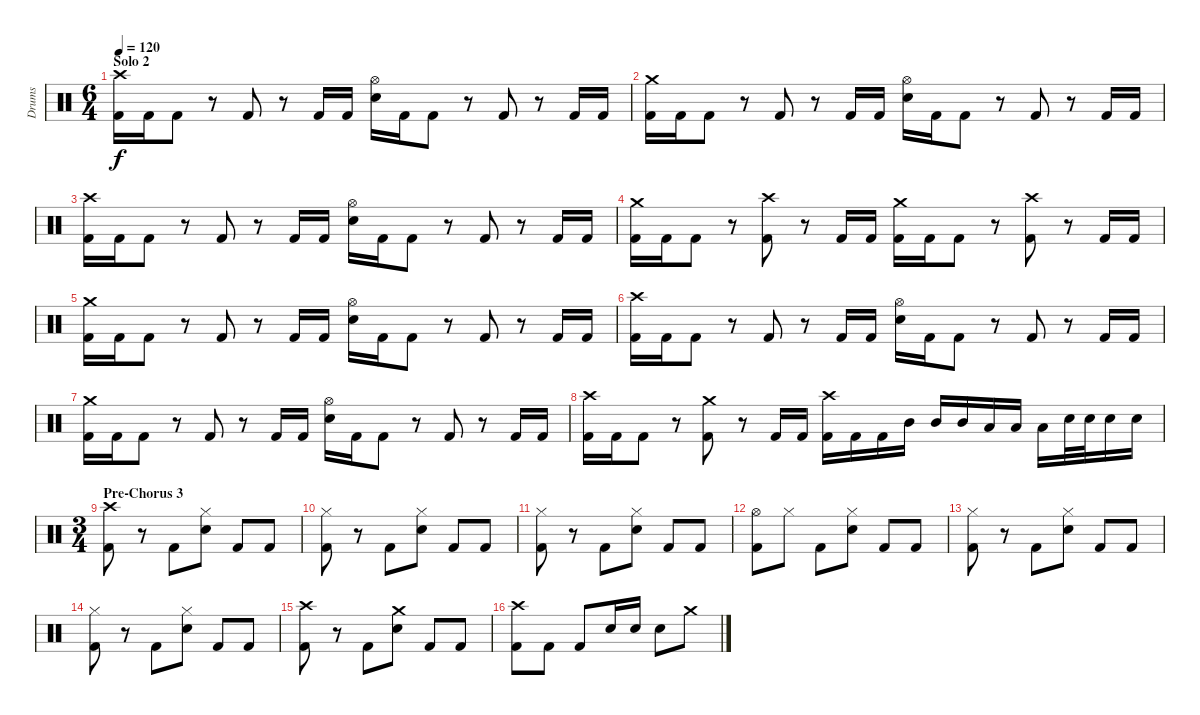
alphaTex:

\track ("Drums" "Drums") {instrument percussion}
\staff {score}
\articulation defaults
\ts (6 4)
\section ("" "Solo 2")
\tempo 120
\clef neutral
\ks c
("Crash high (hit)" "Kick (hit) 2").16{dy f} "Kick (hit) 2".16 "Kick (hit) 2".8 r.8 "Kick (hit) 2".8 r.8 "Kick (hit) 2".16 "Kick (hit) 2".16 ("Hi-Hat (open)" "Snare (hit) 2").16 "Kick (hit) 2".16 "Kick (hit) 2".8 r.8 "Kick (hit) 2".8 r.8 "Kick (hit) 2".16 "Kick (hit) 2".16 |
("Crash medium (hit)" "Kick (hit) 2").16 "Kick (hit) 2".16 "Kick (hit) 2".8 r.8 "Kick (hit) 2".8 r.8 "Kick (hit) 2".16 "Kick (hit) 2".16 ("Hi-Hat (open)" "Snare (hit) 2").16 "Kick (hit) 2".16 "Kick (hit) 2".8 r.8 "Kick (hit) 2".8 r.8 "Kick (hit) 2".16 "Kick (hit) 2".16 |
("Crash high (hit)" "Kick (hit) 2").16 "Kick (hit) 2".16 "Kick (hit) 2".8 r.8 "Kick (hit) 2".8 r.8 "Kick (hit) 2".16 "Kick (hit) 2".16 ("Hi-Hat (open)" "Snare (hit) 2").16 "Kick (hit) 2".16 "Kick (hit) 2".8 r.8 "Kick (hit) 2".8 r.8 "Kick (hit) 2".16 "Kick (hit) 2".16 |
("Crash medium (hit)" "Kick (hit) 2").16 "Kick (hit) 2".16 "Kick (hit) 2".8 r.8 ("Crash high (hit)" "Kick (hit) 2").8 r.8 "Kick (hit) 2".16 "Kick (hit) 2".16 ("Crash medium (hit)" "Kick (hit) 2").16 "Kick (hit) 2".16 "Kick (hit) 2".8 r.8 ("Crash high (hit)" "Kick (hit) 2").8 r.8 "Kick (hit) 2".16 "Kick (hit) 2".16 |
("Crash medium (hit)" "Kick (hit) 2").16 "Kick (hit) 2".16 "Kick (hit) 2".8 r.8 "Kick (hit) 2".8 r.8 "Kick (hit) 2".16 "Kick (hit) 2".16 ("Hi-Hat (open)" "Snare (hit) 2").16 "Kick (hit) 2".16 "Kick (hit) 2".8 r.8 "Kick (hit) 2".8 r.8 "Kick (hit) 2".16 "Kick (hit) 2".16 |
("Crash high (hit)" "Kick (hit) 2").16 "Kick (hit) 2".16 "Kick (hit) 2".8 r.8 "Kick (hit) 2".8 r.8 "Kick (hit) 2".16 "Kick (hit) 2".16 ("Hi-Hat (open)" "Snare (hit) 2").16 "Kick (hit) 2".16 "Kick (hit) 2".8 r.8 "Kick (hit) 2".8 r.8 "Kick (hit) 2".16 "Kick (hit) 2".16 |
("Crash medium (hit)" "Kick (hit) 2").16 "Kick (hit) 2".16 "Kick (hit) 2".8 r.8 "Kick (hit) 2".8 r.8 "Kick (hit) 2".16 "Kick (hit) 2".16 ("Hi-Hat (open)" "Snare (hit) 2").16 "Kick (hit) 2".16 "Kick (hit) 2".8 r.8 "Kick (hit) 2".8 r.8 "Kick (hit) 2".16 "Kick (hit) 2".16 |
("Crash high (hit)" "Kick (hit) 2").16 "Kick (hit) 2".16 "Kick (hit) 2".8 r.8 ("Crash medium (hit)" "Kick (hit) 2").8 r.8 "Kick (hit) 2".16 "Kick (hit) 2".16 ("Crash high (hit)" "Kick (hit) 2").16 "Kick (hit) 2".16 "Kick (hit) 2".16 "Mid Tom (hit)".16 "Mid Tom (hit)".16 "Mid Tom (hit)".16 "Low Tom (hit)".16 "Low Tom (hit)".16 "Low Tom (hit)".16 "Snare (hit) 2".32 "Snare (hit) 2".32 "Snare (hit) 2".16 "Snare (hit) 2".16 |
\ts (3 4)
\section ("" "Pre-Chorus 3")
("Crash high (hit)" "Kick (hit) 2").8 r.8 "Kick (hit) 2".8 ("Hi-Hat (closed)" "Snare (hit) 2").8 "Kick (hit) 2".8 "Kick (hit) 2".8 |
("Hi-Hat (closed)" "Kick (hit) 2").8 r.8 "Kick (hit) 2".8 ("Hi-Hat (closed)" "Snare (hit) 2").8 "Kick (hit) 2".8 "Kick (hit) 2".8 |
("Hi-Hat (closed)" "Kick (hit) 2").8 r.8 "Kick (hit) 2".8 ("Hi-Hat (closed)" "Snare (hit) 2").8 "Kick (hit) 2".8 "Kick (hit) 2".8 |
("Hi-Hat (open)" "Kick (hit) 2").8 "Hi-Hat (closed)".8 "Kick (hit) 2".8 ("Hi-Hat (closed)" "Snare (hit) 2").8 "Kick (hit) 2".8 "Kick (hit) 2".8 |
("Hi-Hat (closed)" "Kick (hit) 2").8 r.8 "Kick (hit) 2".8 ("Hi-Hat (closed)" "Snare (hit) 2").8 "Kick (hit) 2".8 "Kick (hit) 2".8 |
("Hi-Hat (closed)" "Kick (hit) 2").8 r.8 "Kick (hit) 2".8 ("Hi-Hat (closed)" "Snare (hit) 2").8 "Kick (hit) 2".8 "Kick (hit) 2".8 |
("Crash high (hit)" "Kick (hit) 2").8 r.8 "Kick (hit) 2".8 ("Crash medium (hit)" "Snare (hit) 2").8 "Kick (hit) 2".8 "Kick (hit) 2".8 |
("Crash high (hit)" "Kick (hit) 2").8 "Kick (hit) 2".8 "Kick (hit) 2".8 "Snare (hit) 2".16 "Snare (hit) 2".16 "Snare (hit) 2".8 "Crash medium (hit)".8
